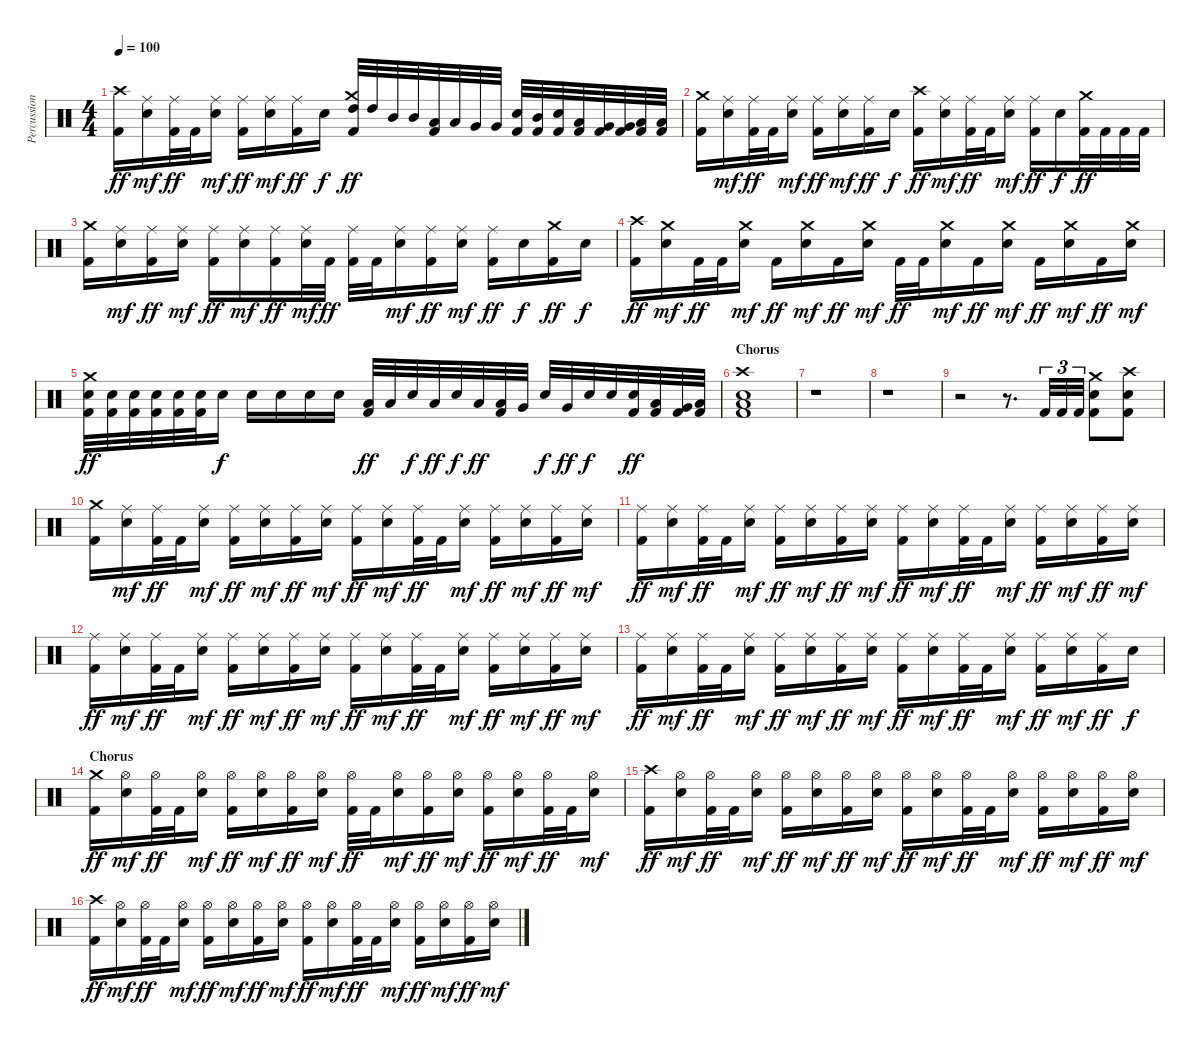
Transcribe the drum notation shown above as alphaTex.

\track ("Percussion" "Percussion") {instrument percussion}
\staff {score}
\articulation defaults
\ts (4 4)
\tempo 100
\clef neutral
\ks c
("Crash high (hit)" "Kick (hit) 2").16{dy ff} ("Ride (middle)" "Snare (hit) 2").16{dy mf} ("Ride (middle)" "Kick (hit) 2").32{dy ff} "Kick (hit) 2".32 ("Ride (middle)" "Snare (hit) 2").16{dy mf} ("Ride (middle)" "Kick (hit) 2").16{dy ff} ("Ride (middle)" "Snare (hit) 2").16{dy mf} ("Ride (middle)" "Kick (hit) 2").16{dy ff} "Snare (hit) 2".16{dy f} ("Crash medium (hit)" "High Tom (hit)" "Kick (hit) 2").32{dy ff} "High Tom (hit)".32 "Mid Tom (hit)".32 "Mid Tom (hit)".32 ("Low Tom (hit)" "Kick (hit) 2").32 "Low Tom (hit)".32 "Very Low Tom (hit)".32 "Very Low Tom (hit)".32 ("Snare (hit) 2" "Kick (hit) 2").32 ("Mid Tom (hit)" "Kick (hit) 2").32 ("Snare (hit) 2" "Kick (hit) 2").32 ("Low Tom (hit)" "Kick (hit) 2").32 ("Very Low Tom (hit)" "Kick (hit) 2").32 ("Very Low Tom (hit)" "Kick (hit) 2").32 ("Low Floor Tom (hit)" "Kick (hit) 2").32 ("Low Floor Tom (hit)" "Kick (hit) 2").32 |
("Crash medium (hit)" "Kick (hit) 2").16 ("Ride (middle)" "Snare (hit) 2").16{dy mf} ("Ride (middle)" "Kick (hit) 2").32{dy ff} "Kick (hit) 2".32 ("Ride (middle)" "Snare (hit) 2").16{dy mf} ("Ride (middle)" "Kick (hit) 2").16{dy ff} ("Ride (middle)" "Snare (hit) 2").16{dy mf} ("Ride (middle)" "Kick (hit) 2").16{dy ff} "Snare (hit) 2".16{dy f} ("Crash high (hit)" "Kick (hit) 2").16{dy ff} ("Ride (middle)" "Snare (hit) 2").16{dy mf} ("Ride (middle)" "Kick (hit) 2").32{dy ff} "Kick (hit) 2".32 ("Ride (middle)" "Snare (hit) 2").16{dy mf} ("Ride (middle)" "Kick (hit) 2").16{dy ff} "Snare (hit) 2".16{dy f} ("Crash medium (hit)" "Kick (hit) 2").32{dy ff} "Kick (hit) 2".32 "Kick (hit) 2".32 "Kick (hit) 2".32 |
("Crash medium (hit)" "Kick (hit) 2").16 ("Ride (middle)" "Snare (hit) 2").16{dy mf} ("Ride (middle)" "Kick (hit) 2").16{dy ff} ("Ride (middle)" "Snare (hit) 2").16{dy mf} ("Ride (middle)" "Kick (hit) 2").16{dy ff} ("Ride (middle)" "Snare (hit) 2").16{dy mf} ("Ride (middle)" "Kick (hit) 2").16{dy ff} ("Ride (middle)" "Snare (hit) 2").32{dy mf} "Kick (hit) 2".32{dy ff} ("Ride (middle)" "Kick (hit) 2").32 "Kick (hit) 2".32 ("Ride (middle)" "Snare (hit) 2").16{dy mf} ("Ride (middle)" "Kick (hit) 2").16{dy ff} ("Ride (middle)" "Snare (hit) 2").16{dy mf} ("Ride (middle)" "Kick (hit) 2").16{dy ff} "Snare (hit) 2".16{dy f} ("Crash medium (hit)" "Kick (hit) 2").16{dy ff} "Snare (hit) 2".16{dy f} |
("Crash high (hit)" "Kick (hit) 2").16{dy ff} ("Crash medium (hit)" "Snare (hit) 2").16{dy mf} "Kick (hit) 2".32{dy ff} "Kick (hit) 2".32 ("Crash medium (hit)" "Snare (hit) 2").16{dy mf} "Kick (hit) 2".16{dy ff} ("Crash medium (hit)" "Snare (hit) 2").16{dy mf} "Kick (hit) 2".16{dy ff} ("Crash medium (hit)" "Snare (hit) 2").16{dy mf} "Kick (hit) 2".32{dy ff} "Kick (hit) 2".32 ("Crash medium (hit)" "Snare (hit) 2").16{dy mf} "Kick (hit) 2".16{dy ff} ("Crash medium (hit)" "Snare (hit) 2").16{dy mf} "Kick (hit) 2".16{dy ff} ("Crash medium (hit)" "Snare (hit) 2").16{dy mf} "Kick (hit) 2".16{dy ff} ("Crash medium (hit)" "Snare (hit) 2").16{dy mf} |
("Crash medium (hit)" "Snare (hit) 2" "Kick (hit) 2").32{dy ff} ("Snare (hit) 2" "Kick (hit) 2").32 ("Snare (hit) 2" "Kick (hit) 2").32 ("Snare (hit) 2" "Kick (hit) 2").32 ("Snare (hit) 2" "Kick (hit) 2").32 ("Snare (hit) 2" "Kick (hit) 2").32 "Snare (hit) 2".16{dy f} "Snare (hit) 2".16 "Snare (hit) 2".16 "Snare (hit) 2".16 "Snare (hit) 2".16 ("Low Tom (hit)" "Kick (hit) 2").32{dy ff} "Low Tom (hit)".32 "Snare (hit) 2".32{dy f} "Low Tom (hit)".32{dy ff} "Snare (hit) 2".32{dy f} "Low Tom (hit)".32{dy ff} ("Low Tom (hit)" "Kick (hit) 2").32 "Very Low Tom (hit)".32 "Snare (hit) 2".32{dy f} "Very Low Tom (hit)".32{dy ff} "Snare (hit) 2".32{dy f} "Snare (hit) 2".32 ("Snare (hit) 2" "Kick (hit) 2").32{dy ff} ("Low Tom (hit)" "Kick (hit) 2").32 ("Very Low Tom (hit)" "Kick (hit) 2").32 ("Low Floor Tom (hit)" "Kick (hit) 2").32 |
\section ("" "Chorus")
("Crash high (hit)" "Low Floor Tom (hit)" "Snare (hit) 2" "Kick (hit) 2").1 |
r.1 |
r.1 |
r.2 r.8{d} "Kick (hit) 2".32{tu (3 2)} "Kick (hit) 2".32{tu (3 2)} "Kick (hit) 2".32{tu (3 2)} ("Crash medium (hit)" "Snare (hit) 2" "Kick (hit) 2").8 ("Crash high (hit)" "Snare (hit) 2" "Kick (hit) 2").8 |
("Crash medium (hit)" "Kick (hit) 2").16 ("Ride (middle)" "Snare (hit) 2").16{dy mf} ("Ride (middle)" "Kick (hit) 2").32{dy ff} "Kick (hit) 2".32 ("Ride (middle)" "Snare (hit) 2").16{dy mf} ("Ride (middle)" "Kick (hit) 2").16{dy ff} ("Ride (middle)" "Snare (hit) 2").16{dy mf} ("Ride (middle)" "Kick (hit) 2").16{dy ff} ("Ride (middle)" "Snare (hit) 2").16{dy mf} ("Ride (middle)" "Kick (hit) 2").16{dy ff} ("Ride (middle)" "Snare (hit) 2").16{dy mf} ("Ride (middle)" "Kick (hit) 2").32{dy ff} "Kick (hit) 2".32 ("Ride (middle)" "Snare (hit) 2").16{dy mf} ("Ride (middle)" "Kick (hit) 2").16{dy ff} ("Ride (middle)" "Snare (hit) 2").16{dy mf} ("Ride (middle)" "Kick (hit) 2").16{dy ff} ("Ride (middle)" "Snare (hit) 2").16{dy mf} |
("Ride (middle)" "Kick (hit) 2").16{dy ff} ("Ride (middle)" "Snare (hit) 2").16{dy mf} ("Ride (middle)" "Kick (hit) 2").32{dy ff} "Kick (hit) 2".32 ("Ride (middle)" "Snare (hit) 2").16{dy mf} ("Ride (middle)" "Kick (hit) 2").16{dy ff} ("Ride (middle)" "Snare (hit) 2").16{dy mf} ("Ride (middle)" "Kick (hit) 2").16{dy ff} ("Ride (middle)" "Snare (hit) 2").16{dy mf} ("Ride (middle)" "Kick (hit) 2").16{dy ff} ("Ride (middle)" "Snare (hit) 2").16{dy mf} ("Ride (middle)" "Kick (hit) 2").32{dy ff} "Kick (hit) 2".32 ("Ride (middle)" "Snare (hit) 2").16{dy mf} ("Ride (middle)" "Kick (hit) 2").16{dy ff} ("Ride (middle)" "Snare (hit) 2").16{dy mf} ("Ride (middle)" "Kick (hit) 2").16{dy ff} ("Ride (middle)" "Snare (hit) 2").16{dy mf} |
("Ride (middle)" "Kick (hit) 2").16{dy ff} ("Ride (middle)" "Snare (hit) 2").16{dy mf} ("Ride (middle)" "Kick (hit) 2").32{dy ff} "Kick (hit) 2".32 ("Ride (middle)" "Snare (hit) 2").16{dy mf} ("Ride (middle)" "Kick (hit) 2").16{dy ff} ("Ride (middle)" "Snare (hit) 2").16{dy mf} ("Ride (middle)" "Kick (hit) 2").16{dy ff} ("Ride (middle)" "Snare (hit) 2").16{dy mf} ("Ride (middle)" "Kick (hit) 2").16{dy ff} ("Ride (middle)" "Snare (hit) 2").16{dy mf} ("Ride (middle)" "Kick (hit) 2").32{dy ff} "Kick (hit) 2".32 ("Ride (middle)" "Snare (hit) 2").16{dy mf} ("Ride (middle)" "Kick (hit) 2").16{dy ff} ("Ride (middle)" "Snare (hit) 2").16{dy mf} ("Ride (middle)" "Kick (hit) 2").16{dy ff} ("Ride (middle)" "Snare (hit) 2").16{dy mf} |
("Ride (middle)" "Kick (hit) 2").16{dy ff} ("Ride (middle)" "Snare (hit) 2").16{dy mf} ("Ride (middle)" "Kick (hit) 2").32{dy ff} "Kick (hit) 2".32 ("Ride (middle)" "Snare (hit) 2").16{dy mf} ("Ride (middle)" "Kick (hit) 2").16{dy ff} ("Ride (middle)" "Snare (hit) 2").16{dy mf} ("Ride (middle)" "Kick (hit) 2").16{dy ff} ("Ride (middle)" "Snare (hit) 2").16{dy mf} ("Ride (middle)" "Kick (hit) 2").16{dy ff} ("Ride (middle)" "Snare (hit) 2").16{dy mf} ("Ride (middle)" "Kick (hit) 2").32{dy ff} "Kick (hit) 2".32 ("Ride (middle)" "Snare (hit) 2").16{dy mf} ("Ride (middle)" "Kick (hit) 2").16{dy ff} ("Ride (middle)" "Snare (hit) 2").16{dy mf} ("Ride (middle)" "Kick (hit) 2").16{dy ff} "Snare (hit) 2".16{dy f} |
\section ("" "Chorus")
("Crash medium (hit)" "Kick (hit) 2").16{dy ff} ("Hi-Hat (open)" "Snare (hit) 2").16{dy mf} ("Hi-Hat (open)" "Kick (hit) 2").32{dy ff} "Kick (hit) 2".32 ("Hi-Hat (open)" "Snare (hit) 2").16{dy mf} ("Hi-Hat (open)" "Kick (hit) 2").16{dy ff} ("Hi-Hat (open)" "Snare (hit) 2").16{dy mf} ("Hi-Hat (open)" "Kick (hit) 2").16{dy ff} ("Hi-Hat (open)" "Snare (hit) 2").16{dy mf} ("Hi-Hat (open)" "Kick (hit) 2").32{dy ff} "Kick (hit) 2".32 ("Hi-Hat (open)" "Snare (hit) 2").16{dy mf} ("Hi-Hat (open)" "Kick (hit) 2").16{dy ff} ("Hi-Hat (open)" "Snare (hit) 2").16{dy mf} ("Hi-Hat (open)" "Kick (hit) 2").16{dy ff} ("Hi-Hat (open)" "Snare (hit) 2").16{dy mf} ("Hi-Hat (open)" "Kick (hit) 2").32{dy ff} "Kick (hit) 2".32 ("Hi-Hat (open)" "Snare (hit) 2").16{dy mf} |
("Crash high (hit)" "Kick (hit) 2").16{dy ff} ("Hi-Hat (open)" "Snare (hit) 2").16{dy mf} ("Hi-Hat (open)" "Kick (hit) 2").32{dy ff} "Kick (hit) 2".32 ("Hi-Hat (open)" "Snare (hit) 2").16{dy mf} ("Hi-Hat (open)" "Kick (hit) 2").16{dy ff} ("Hi-Hat (open)" "Snare (hit) 2").16{dy mf} ("Hi-Hat (open)" "Kick (hit) 2").16{dy ff} ("Hi-Hat (open)" "Snare (hit) 2").16{dy mf} ("Hi-Hat (open)" "Kick (hit) 2").16{dy ff} ("Hi-Hat (open)" "Snare (hit) 2").16{dy mf} ("Hi-Hat (open)" "Kick (hit) 2").32{dy ff} "Kick (hit) 2".32 ("Hi-Hat (open)" "Snare (hit) 2").16{dy mf} ("Hi-Hat (open)" "Kick (hit) 2").16{dy ff} ("Hi-Hat (open)" "Snare (hit) 2").16{dy mf} ("Hi-Hat (open)" "Kick (hit) 2").16{dy ff} ("Hi-Hat (open)" "Snare (hit) 2").16{dy mf} |
("Crash high (hit)" "Kick (hit) 2").16{dy ff} ("Hi-Hat (open)" "Snare (hit) 2").16{dy mf} ("Hi-Hat (open)" "Kick (hit) 2").32{dy ff} "Kick (hit) 2".32 ("Hi-Hat (open)" "Snare (hit) 2").16{dy mf} ("Hi-Hat (open)" "Kick (hit) 2").16{dy ff} ("Hi-Hat (open)" "Snare (hit) 2").16{dy mf} ("Hi-Hat (open)" "Kick (hit) 2").16{dy ff} ("Hi-Hat (open)" "Snare (hit) 2").16{dy mf} ("Hi-Hat (open)" "Kick (hit) 2").16{dy ff} ("Hi-Hat (open)" "Snare (hit) 2").16{dy mf} ("Hi-Hat (open)" "Kick (hit) 2").32{dy ff} "Kick (hit) 2".32 ("Hi-Hat (open)" "Snare (hit) 2").16{dy mf} ("Hi-Hat (open)" "Kick (hit) 2").16{dy ff} ("Hi-Hat (open)" "Snare (hit) 2").16{dy mf} ("Hi-Hat (open)" "Kick (hit) 2").16{dy ff} ("Hi-Hat (open)" "Snare (hit) 2").16{dy mf}
